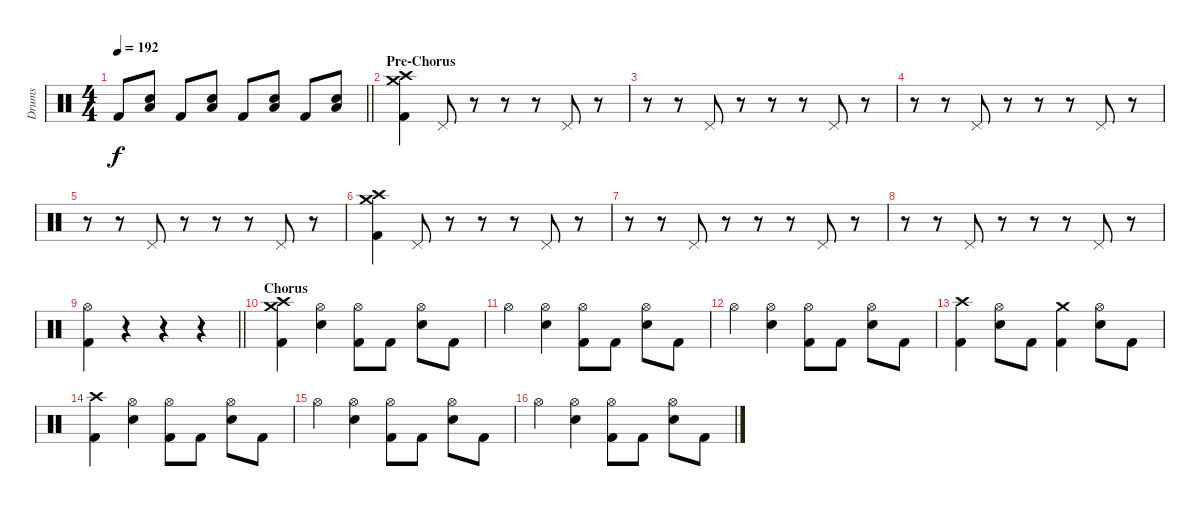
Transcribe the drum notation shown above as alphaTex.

\track ("Drums" "Drums") {instrument percussion}
\staff {score}
\articulation defaults
\ts (4 4)
\tempo 192
\clef neutral
\barLineRight lightlight
\ks c "Kick (hit) 2".8{dy f}
("Low Floor Tom (hit)" "Electric Snare (hit)").8 "Kick (hit) 2".8 ("Low Floor Tom (hit)" "Electric Snare (hit)").8 "Kick (hit) 2".8 ("Low Floor Tom (hit)" "Electric Snare (hit)").8 "Kick (hit) 2".8 ("Low Floor Tom (hit)" "Electric Snare (hit)").8 |
\section ("" "Pre-Chorus")
("Crash high (hit)" "Crash medium (hit)" "Kick (hit) 2").4 "Pedal Hi-Hat (hit)".8 r.8 r.8 r.8 "Pedal Hi-Hat (hit)".8 r.8 |
r.8 r.8 "Pedal Hi-Hat (hit)".8 r.8 r.8 r.8 "Pedal Hi-Hat (hit)".8 r.8 |
r.8 r.8 "Pedal Hi-Hat (hit)".8 r.8 r.8 r.8 "Pedal Hi-Hat (hit)".8 r.8 |
r.8 r.8 "Pedal Hi-Hat (hit)".8 r.8 r.8 r.8 "Pedal Hi-Hat (hit)".8 r.8 |
("Crash high (hit)" "Crash medium (hit)" "Kick (hit) 2").4 "Pedal Hi-Hat (hit)".8 r.8 r.8 r.8 "Pedal Hi-Hat (hit)".8 r.8 |
r.8 r.8 "Pedal Hi-Hat (hit)".8 r.8 r.8 r.8 "Pedal Hi-Hat (hit)".8 r.8 |
r.8 r.8 "Pedal Hi-Hat (hit)".8 r.8 r.8 r.8 "Pedal Hi-Hat (hit)".8 r.8 |
\barLineRight lightlight
("Hi-Hat (open)" "Kick (hit) 2").4 r.4 r.4 r.4 |
\section ("" "Chorus")
("Crash medium (hit)" "Crash high (hit)" "Kick (hit) 2").4 ("Hi-Hat (open)" "Electric Snare (hit)").4 ("Hi-Hat (open)" "Kick (hit) 2").8 "Kick (hit) 2".8 ("Hi-Hat (open)" "Electric Snare (hit)").8 "Kick (hit) 2".8 |
"Hi-Hat (open)".4 ("Hi-Hat (open)" "Electric Snare (hit)").4 ("Hi-Hat (open)" "Kick (hit) 2").8 "Kick (hit) 2".8 ("Hi-Hat (open)" "Electric Snare (hit)").8 "Kick (hit) 2".8 |
"Hi-Hat (open)".4 ("Hi-Hat (open)" "Electric Snare (hit)").4 ("Hi-Hat (open)" "Kick (hit) 2").8 "Kick (hit) 2".8 ("Hi-Hat (open)" "Electric Snare (hit)").8 "Kick (hit) 2".8 |
("Crash high (hit)" "Kick (hit) 2").4 ("Hi-Hat (open)" "Electric Snare (hit)").8 "Kick (hit) 2".8 ("Crash medium (hit)" "Kick (hit) 2").4 ("Hi-Hat (open)" "Electric Snare (hit)").8 "Kick (hit) 2".8 |
("Crash high (hit)" "Kick (hit) 2").4 ("Hi-Hat (open)" "Electric Snare (hit)").4 ("Hi-Hat (open)" "Kick (hit) 2").8 "Kick (hit) 2".8 ("Hi-Hat (open)" "Electric Snare (hit)").8 "Kick (hit) 2".8 |
"Hi-Hat (open)".4 ("Hi-Hat (open)" "Electric Snare (hit)").4 ("Hi-Hat (open)" "Kick (hit) 2").8 "Kick (hit) 2".8 ("Hi-Hat (open)" "Electric Snare (hit)").8 "Kick (hit) 2".8 |
"Hi-Hat (open)".4 ("Hi-Hat (open)" "Electric Snare (hit)").4 ("Hi-Hat (open)" "Kick (hit) 2").8 "Kick (hit) 2".8 ("Hi-Hat (open)" "Electric Snare (hit)").8 "Kick (hit) 2".8
